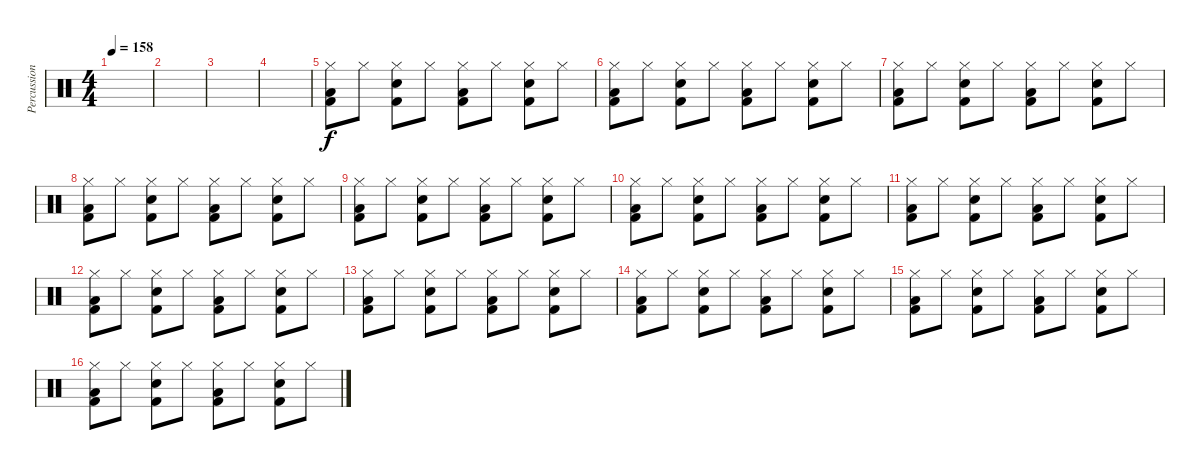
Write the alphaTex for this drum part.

\track ("Percussions" "Percussion") {instrument percussion}
\staff {score}
\articulation defaults
\ts (4 4)
\tempo 158
\clef neutral
\ks c
|
|
|
|
("Hi-Hat (closed)" "Low Floor Tom (hit)" "Kick (hit) 2").8 "Hi-Hat (closed)".8 ("Hi-Hat (closed)" "Snare (hit) 2" "Kick (hit) 2").8 "Hi-Hat (closed)".8 ("Hi-Hat (closed)" "Low Floor Tom (hit)" "Kick (hit) 2").8 "Hi-Hat (closed)".8 ("Hi-Hat (closed)" "Snare (hit) 2" "Kick (hit) 2").8 "Hi-Hat (closed)".8 |
("Hi-Hat (closed)" "Low Floor Tom (hit)" "Kick (hit) 2").8 "Hi-Hat (closed)".8 ("Hi-Hat (closed)" "Snare (hit) 2" "Kick (hit) 2").8 "Hi-Hat (closed)".8 ("Hi-Hat (closed)" "Low Floor Tom (hit)" "Kick (hit) 2").8 "Hi-Hat (closed)".8 ("Hi-Hat (closed)" "Snare (hit) 2" "Kick (hit) 2").8 "Hi-Hat (closed)".8 |
("Hi-Hat (closed)" "Low Floor Tom (hit)" "Kick (hit) 2").8 "Hi-Hat (closed)".8 ("Hi-Hat (closed)" "Snare (hit) 2" "Kick (hit) 2").8 "Hi-Hat (closed)".8 ("Hi-Hat (closed)" "Low Floor Tom (hit)" "Kick (hit) 2").8 "Hi-Hat (closed)".8 ("Hi-Hat (closed)" "Snare (hit) 2" "Kick (hit) 2").8 "Hi-Hat (closed)".8 |
("Hi-Hat (closed)" "Low Floor Tom (hit)" "Kick (hit) 2").8 "Hi-Hat (closed)".8 ("Hi-Hat (closed)" "Snare (hit) 2" "Kick (hit) 2").8 "Hi-Hat (closed)".8 ("Hi-Hat (closed)" "Low Floor Tom (hit)" "Kick (hit) 2").8 "Hi-Hat (closed)".8 ("Hi-Hat (closed)" "Snare (hit) 2" "Kick (hit) 2").8 "Hi-Hat (closed)".8 |
("Hi-Hat (closed)" "Low Floor Tom (hit)" "Kick (hit) 2").8 "Hi-Hat (closed)".8 ("Hi-Hat (closed)" "Snare (hit) 2" "Kick (hit) 2").8 "Hi-Hat (closed)".8 ("Hi-Hat (closed)" "Low Floor Tom (hit)" "Kick (hit) 2").8 "Hi-Hat (closed)".8 ("Hi-Hat (closed)" "Snare (hit) 2" "Kick (hit) 2").8 "Hi-Hat (closed)".8 |
("Hi-Hat (closed)" "Low Floor Tom (hit)" "Kick (hit) 2").8 "Hi-Hat (closed)".8 ("Hi-Hat (closed)" "Snare (hit) 2" "Kick (hit) 2").8 "Hi-Hat (closed)".8 ("Hi-Hat (closed)" "Low Floor Tom (hit)" "Kick (hit) 2").8 "Hi-Hat (closed)".8 ("Hi-Hat (closed)" "Snare (hit) 2" "Kick (hit) 2").8 "Hi-Hat (closed)".8 |
("Hi-Hat (closed)" "Low Floor Tom (hit)" "Kick (hit) 2").8 "Hi-Hat (closed)".8 ("Hi-Hat (closed)" "Snare (hit) 2" "Kick (hit) 2").8 "Hi-Hat (closed)".8 ("Hi-Hat (closed)" "Low Floor Tom (hit)" "Kick (hit) 2").8 "Hi-Hat (closed)".8 ("Hi-Hat (closed)" "Snare (hit) 2" "Kick (hit) 2").8 "Hi-Hat (closed)".8 |
("Hi-Hat (closed)" "Low Floor Tom (hit)" "Kick (hit) 2").8 "Hi-Hat (closed)".8 ("Hi-Hat (closed)" "Snare (hit) 2" "Kick (hit) 2").8 "Hi-Hat (closed)".8 ("Hi-Hat (closed)" "Low Floor Tom (hit)" "Kick (hit) 2").8 "Hi-Hat (closed)".8 ("Hi-Hat (closed)" "Snare (hit) 2" "Kick (hit) 2").8 "Hi-Hat (closed)".8 |
("Hi-Hat (closed)" "Low Floor Tom (hit)" "Kick (hit) 2").8 "Hi-Hat (closed)".8 ("Hi-Hat (closed)" "Snare (hit) 2" "Kick (hit) 2").8 "Hi-Hat (closed)".8 ("Hi-Hat (closed)" "Low Floor Tom (hit)" "Kick (hit) 2").8 "Hi-Hat (closed)".8 ("Hi-Hat (closed)" "Snare (hit) 2" "Kick (hit) 2").8 "Hi-Hat (closed)".8 |
("Hi-Hat (closed)" "Low Floor Tom (hit)" "Kick (hit) 2").8 "Hi-Hat (closed)".8 ("Hi-Hat (closed)" "Snare (hit) 2" "Kick (hit) 2").8 "Hi-Hat (closed)".8 ("Hi-Hat (closed)" "Low Floor Tom (hit)" "Kick (hit) 2").8 "Hi-Hat (closed)".8 ("Hi-Hat (closed)" "Snare (hit) 2" "Kick (hit) 2").8 "Hi-Hat (closed)".8 |
("Hi-Hat (closed)" "Low Floor Tom (hit)" "Kick (hit) 2").8 "Hi-Hat (closed)".8 ("Hi-Hat (closed)" "Snare (hit) 2" "Kick (hit) 2").8 "Hi-Hat (closed)".8 ("Hi-Hat (closed)" "Low Floor Tom (hit)" "Kick (hit) 2").8 "Hi-Hat (closed)".8 ("Hi-Hat (closed)" "Snare (hit) 2" "Kick (hit) 2").8 "Hi-Hat (closed)".8 |
("Hi-Hat (closed)" "Low Floor Tom (hit)" "Kick (hit) 2").8 "Hi-Hat (closed)".8 ("Hi-Hat (closed)" "Snare (hit) 2" "Kick (hit) 2").8 "Hi-Hat (closed)".8 ("Hi-Hat (closed)" "Low Floor Tom (hit)" "Kick (hit) 2").8 "Hi-Hat (closed)".8 ("Hi-Hat (closed)" "Snare (hit) 2" "Kick (hit) 2").8 "Hi-Hat (closed)".8
